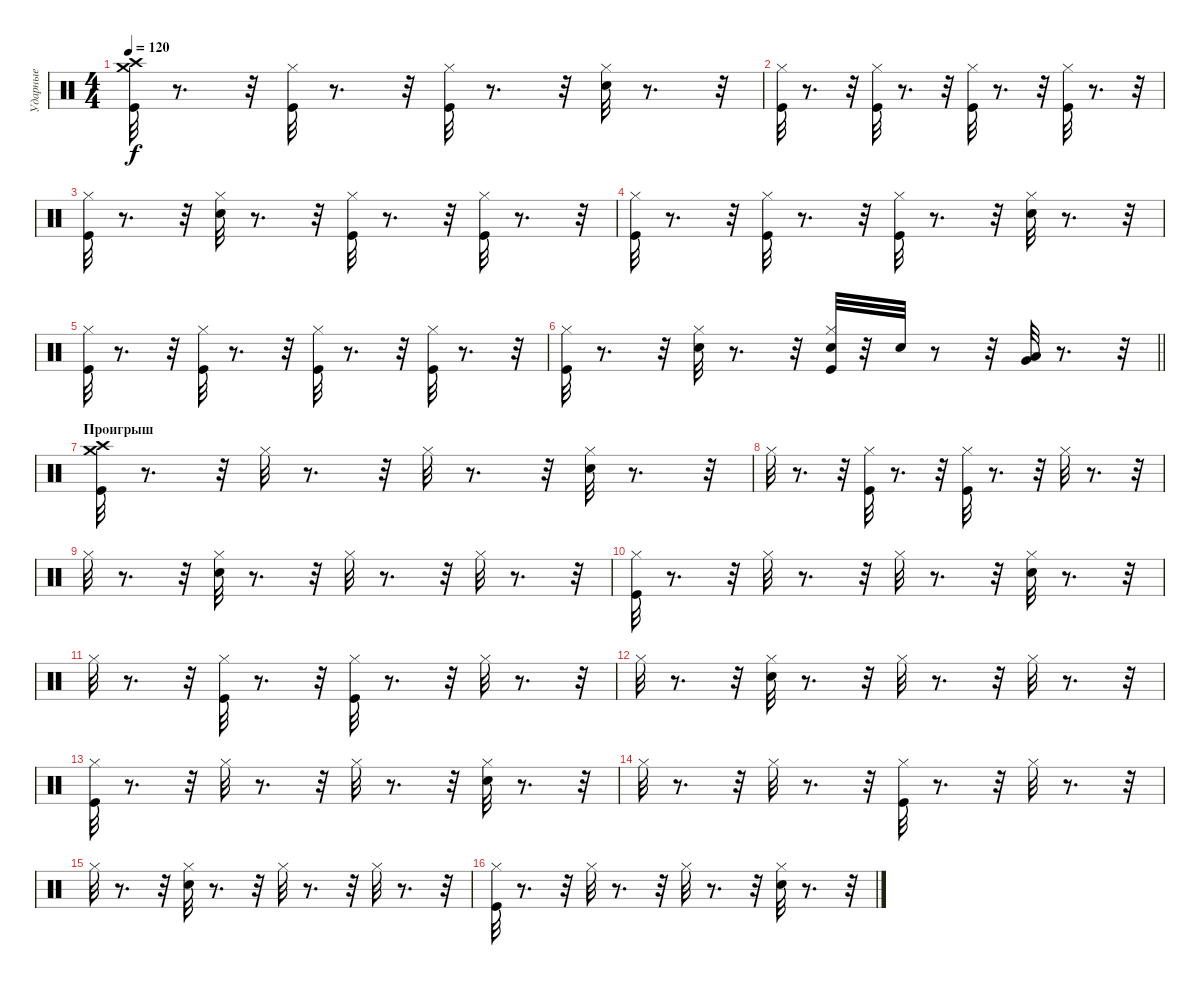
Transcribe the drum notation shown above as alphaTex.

\track ("Ударные" "Ударные") {instrument percussion}
\staff {score}
\articulation defaults
\ts (4 4)
\tempo 120
\clef neutral
\ks c
("Crash medium (hit)" "Crash high (hit)" "Kick (hit)").32{dy f} r.8{d} r.32 ("Kick (hit)" "Hi-Hat (closed)").32 r.8{d} r.32 ("Kick (hit)" "Hi-Hat (closed)").32 r.8{d} r.32 ("Hi-Hat (closed)" "Snare (hit) 2").32 r.8{d} r.32 |
("Kick (hit)" "Hi-Hat (closed)").32 r.8{d} r.32 ("Kick (hit)" "Hi-Hat (closed)").32 r.8{d} r.32 ("Hi-Hat (closed)" "Kick (hit)").32 r.8{d} r.32 ("Kick (hit)" "Hi-Hat (closed)").32 r.8{d} r.32 |
("Kick (hit)" "Hi-Hat (closed)").32 r.8{d} r.32 ("Hi-Hat (closed)" "Snare (hit) 2").32 r.8{d} r.32 ("Kick (hit)" "Hi-Hat (closed)").32 r.8{d} r.32 ("Kick (hit)" "Hi-Hat (closed)").32 r.8{d} r.32 |
("Hi-Hat (closed)" "Kick (hit)").32 r.8{d} r.32 ("Kick (hit)" "Hi-Hat (closed)").32 r.8{d} r.32 ("Kick (hit)" "Hi-Hat (closed)").32 r.8{d} r.32 ("Hi-Hat (closed)" "Snare (hit) 2").32 r.8{d} r.32 |
("Kick (hit)" "Hi-Hat (closed)").32 r.8{d} r.32 ("Kick (hit)" "Hi-Hat (closed)").32 r.8{d} r.32 ("Hi-Hat (closed)" "Kick (hit)").32 r.8{d} r.32 ("Kick (hit)" "Hi-Hat (closed)").32 r.8{d} r.32 |
\barLineRight lightlight
("Kick (hit)" "Hi-Hat (closed)").32 r.8{d} r.32 ("Snare (hit) 2" "Hi-Hat (closed)").32 r.8{d} r.32 ("Snare (hit) 2" "Kick (hit)" "Hi-Hat (closed)").32 r.32 "Snare (hit) 2".32 r.8 r.32 ("Very Low Tom (hit)" "Low Floor Tom (hit)").32 r.8{d} r.32 |
\section ("" "Проигрыш")
("Crash medium (hit)" "Crash high (hit)" "Kick (hit)").32 r.8{d} r.32 "Hi-Hat (closed)".32 r.8{d} r.32 "Hi-Hat (closed)".32 r.8{d} r.32 ("Hi-Hat (closed)" "Snare (hit) 2").32 r.8{d} r.32 |
"Hi-Hat (closed)".32 r.8{d} r.32 ("Hi-Hat (closed)" "Kick (hit)").32 r.8{d} r.32 ("Hi-Hat (closed)" "Kick (hit)").32 r.8{d} r.32 "Hi-Hat (closed)".32 r.8{d} r.32 |
"Hi-Hat (closed)".32 r.8{d} r.32 ("Hi-Hat (closed)" "Snare (hit) 2").32 r.8{d} r.32 "Hi-Hat (closed)".32 r.8{d} r.32 "Hi-Hat (closed)".32 r.8{d} r.32 |
("Hi-Hat (closed)" "Kick (hit)").32 r.8{d} r.32 "Hi-Hat (closed)".32 r.8{d} r.32 "Hi-Hat (closed)".32 r.8{d} r.32 ("Hi-Hat (closed)" "Snare (hit) 2").32 r.8{d} r.32 |
"Hi-Hat (closed)".32 r.8{d} r.32 ("Kick (hit)" "Hi-Hat (closed)").32 r.8{d} r.32 ("Hi-Hat (closed)" "Kick (hit)").32 r.8{d} r.32 "Hi-Hat (closed)".32 r.8{d} r.32 |
"Hi-Hat (closed)".32 r.8{d} r.32 ("Hi-Hat (closed)" "Snare (hit) 2").32 r.8{d} r.32 "Hi-Hat (closed)".32 r.8{d} r.32 "Hi-Hat (closed)".32 r.8{d} r.32 |
("Hi-Hat (closed)" "Kick (hit)").32 r.8{d} r.32 "Hi-Hat (closed)".32 r.8{d} r.32 "Hi-Hat (closed)".32 r.8{d} r.32 ("Hi-Hat (closed)" "Snare (hit) 2").32 r.8{d} r.32 |
"Hi-Hat (closed)".32 r.8{d} r.32 "Hi-Hat (closed)".32 r.8{d} r.32 ("Hi-Hat (closed)" "Kick (hit)").32 r.8{d} r.32 "Hi-Hat (closed)".32 r.8{d} r.32 |
"Hi-Hat (closed)".32 r.8{d} r.32 ("Hi-Hat (closed)" "Snare (hit) 2").32 r.8{d} r.32 "Hi-Hat (closed)".32 r.8{d} r.32 "Hi-Hat (closed)".32 r.8{d} r.32 |
("Hi-Hat (closed)" "Kick (hit)").32 r.8{d} r.32 "Hi-Hat (closed)".32 r.8{d} r.32 "Hi-Hat (closed)".32 r.8{d} r.32 ("Hi-Hat (closed)" "Snare (hit) 2").32 r.8{d} r.32
